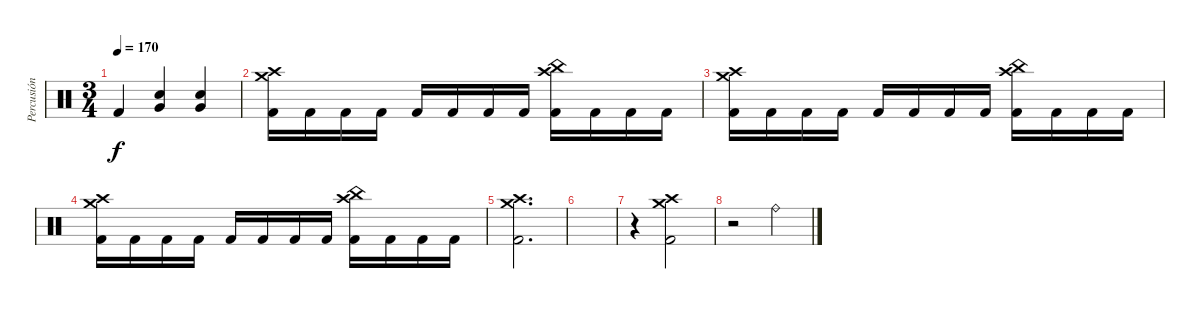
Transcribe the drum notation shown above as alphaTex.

\track ("Percusión" "Percusión") {instrument percussion}
\staff {score}
\articulation defaults
\ts (3 4)
\tempo 170
\clef neutral
\ks c "Kick (hit) 2".4{dy f}
("Snare (hit) 2" "Very Low Tom (hit)").4 ("Snare (hit) 2" "Very Low Tom (hit)").4 |
("Crash high (hit)" "Crash medium (hit)" "Kick (hit) 2").16 "Kick (hit) 2".16 "Kick (hit) 2".16 "Kick (hit) 2".16 "Kick (hit) 2".16 "Kick (hit) 2".16 "Kick (hit) 2".16 "Kick (hit) 2".16 ("China (hit)" "Crash high (hit)" "Kick (hit) 2").16 "Kick (hit) 2".16 "Kick (hit) 2".16 "Kick (hit) 2".16 |
("Crash high (hit)" "Crash medium (hit)" "Kick (hit) 2").16 "Kick (hit) 2".16 "Kick (hit) 2".16 "Kick (hit) 2".16 "Kick (hit) 2".16 "Kick (hit) 2".16 "Kick (hit) 2".16 "Kick (hit) 2".16 ("China (hit)" "Crash high (hit)" "Kick (hit) 2").16 "Kick (hit) 2".16 "Kick (hit) 2".16 "Kick (hit) 2".16 |
("Crash high (hit)" "Crash medium (hit)" "Kick (hit) 2").16 "Kick (hit) 2".16 "Kick (hit) 2".16 "Kick (hit) 2".16 "Kick (hit) 2".16 "Kick (hit) 2".16 "Kick (hit) 2".16 "Kick (hit) 2".16 ("China (hit)" "Crash high (hit)" "Kick (hit) 2").16 "Kick (hit) 2".16 "Kick (hit) 2".16 "Kick (hit) 2".16 |
("Crash high (hit)" "Crash medium (hit)" "Kick (hit) 2").2{d} |
|
r.4 ("Crash high (hit)" "Crash medium (hit)" "Kick (hit) 2").2 |
r.2 "Ride (bell)".4
